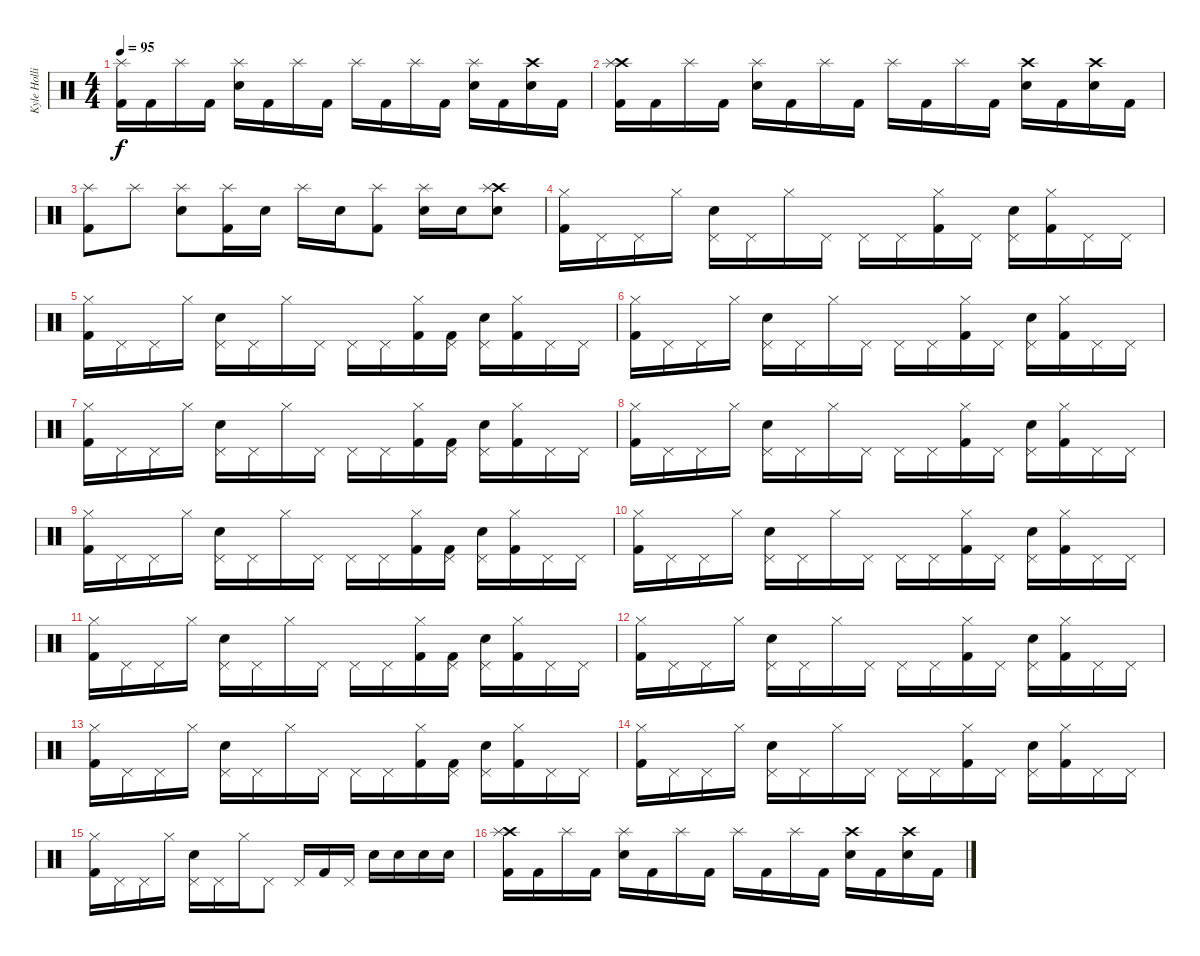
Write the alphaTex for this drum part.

\track ("Kyle Hollinger - Drums" "Kyle Holli") {instrument percussion}
\staff {score}
\articulation defaults
\ts (4 4)
\tempo 95
\clef neutral
\ks c
("Splash (hit)" "Kick (hit) 2").16{dy f} "Kick (hit) 2".16 "Splash (hit)".16 "Kick (hit) 2".16 ("Electric Snare (hit)" "Splash (hit)").16 "Kick (hit) 2".16 "Splash (hit)".16 "Kick (hit) 2".16 "Splash (hit)".16 "Kick (hit) 2".16 "Splash (hit)".16 "Kick (hit) 2".16 ("Electric Snare (hit)" "Splash (hit)").16 "Kick (hit) 2".16 ("Crash high (hit)" "Electric Snare (hit)").16 "Kick (hit) 2".16 |
("Crash high (hit)" "Splash (hit)" "Kick (hit) 2").16 "Kick (hit) 2".16 "Splash (hit)".16 "Kick (hit) 2".16 ("Electric Snare (hit)" "Splash (hit)").16 "Kick (hit) 2".16 "Splash (hit)".16 "Kick (hit) 2".16 "Splash (hit)".16 "Kick (hit) 2".16 "Splash (hit)".16 "Kick (hit) 2".16 ("Crash high (hit)" "Electric Snare (hit)").16 "Kick (hit) 2".16 ("Crash high (hit)" "Electric Snare (hit)").16 "Kick (hit) 2".16 |
("Splash (hit)" "Kick (hit) 2").8 "Splash (hit)".8 ("Electric Snare (hit)" "Splash (hit)").8 ("Splash (hit)" "Kick (hit) 2").16 "Electric Snare (hit)".16 "Splash (hit)".16 "Electric Snare (hit)".16 ("Splash (hit)" "Kick (hit) 2").8 ("Electric Snare (hit)" "Splash (hit)").16 "Electric Snare (hit)".16 ("Crash high (hit)" "Electric Snare (hit)" "Splash (hit)").8 |
("Hi-Hat (closed)" "Kick (hit) 2").16 "Pedal Hi-Hat (hit)".16{volume 5} "Pedal Hi-Hat (hit)".16 "Hi-Hat (closed)".16{volume 16} ("Pedal Hi-Hat (hit)" "Electric Snare (hit)").16 "Pedal Hi-Hat (hit)".16{volume 5} "Hi-Hat (closed)".16{volume 16} "Pedal Hi-Hat (hit)".16{volume 5} "Pedal Hi-Hat (hit)".16 "Pedal Hi-Hat (hit)".16{volume 5} ("Hi-Hat (closed)" "Kick (hit) 2").16{volume 16} "Pedal Hi-Hat (hit)".16{volume 5} ("Pedal Hi-Hat (hit)" "Electric Snare (hit)").16{volume 16} ("Hi-Hat (closed)" "Kick (hit) 2").16 "Pedal Hi-Hat (hit)".16{volume 5} "Pedal Hi-Hat (hit)".16 |
("Hi-Hat (closed)" "Kick (hit) 2").16{volume 16} "Pedal Hi-Hat (hit)".16{volume 5} "Pedal Hi-Hat (hit)".16 "Hi-Hat (closed)".16{volume 16} ("Pedal Hi-Hat (hit)" "Electric Snare (hit)").16 "Pedal Hi-Hat (hit)".16{volume 5} "Hi-Hat (closed)".16{volume 16} "Pedal Hi-Hat (hit)".16{volume 5} "Pedal Hi-Hat (hit)".16 "Pedal Hi-Hat (hit)".16{volume 5} ("Hi-Hat (closed)" "Kick (hit) 2").16{volume 16} ("Pedal Hi-Hat (hit)" "Kick (hit) 2").16{volume 16} ("Pedal Hi-Hat (hit)" "Electric Snare (hit)").16{volume 16} ("Hi-Hat (closed)" "Kick (hit) 2").16 "Pedal Hi-Hat (hit)".16{volume 5} "Pedal Hi-Hat (hit)".16 |
("Hi-Hat (closed)" "Kick (hit) 2").16{volume 16} "Pedal Hi-Hat (hit)".16{volume 5} "Pedal Hi-Hat (hit)".16 "Hi-Hat (closed)".16{volume 16} ("Pedal Hi-Hat (hit)" "Electric Snare (hit)").16 "Pedal Hi-Hat (hit)".16{volume 5} "Hi-Hat (closed)".16{volume 16} "Pedal Hi-Hat (hit)".16{volume 5} "Pedal Hi-Hat (hit)".16 "Pedal Hi-Hat (hit)".16{volume 5} ("Hi-Hat (closed)" "Kick (hit) 2").16{volume 16} "Pedal Hi-Hat (hit)".16{volume 5} ("Pedal Hi-Hat (hit)" "Electric Snare (hit)").16{volume 16} ("Hi-Hat (closed)" "Kick (hit) 2").16 "Pedal Hi-Hat (hit)".16{volume 5} "Pedal Hi-Hat (hit)".16 |
("Hi-Hat (closed)" "Kick (hit) 2").16{volume 16} "Pedal Hi-Hat (hit)".16{volume 5} "Pedal Hi-Hat (hit)".16 "Hi-Hat (closed)".16{volume 16} ("Pedal Hi-Hat (hit)" "Electric Snare (hit)").16 "Pedal Hi-Hat (hit)".16{volume 5} "Hi-Hat (closed)".16{volume 16} "Pedal Hi-Hat (hit)".16{volume 5} "Pedal Hi-Hat (hit)".16 "Pedal Hi-Hat (hit)".16{volume 5} ("Hi-Hat (closed)" "Kick (hit) 2").16{volume 16} ("Pedal Hi-Hat (hit)" "Kick (hit) 2").16{volume 16} ("Pedal Hi-Hat (hit)" "Electric Snare (hit)").16{volume 16} ("Hi-Hat (closed)" "Kick (hit) 2").16 "Pedal Hi-Hat (hit)".16{volume 5} "Pedal Hi-Hat (hit)".16 |
("Hi-Hat (closed)" "Kick (hit) 2").16{volume 16} "Pedal Hi-Hat (hit)".16{volume 5} "Pedal Hi-Hat (hit)".16 "Hi-Hat (closed)".16{volume 16} ("Pedal Hi-Hat (hit)" "Electric Snare (hit)").16 "Pedal Hi-Hat (hit)".16{volume 5} "Hi-Hat (closed)".16{volume 16} "Pedal Hi-Hat (hit)".16{volume 5} "Pedal Hi-Hat (hit)".16 "Pedal Hi-Hat (hit)".16{volume 5} ("Hi-Hat (closed)" "Kick (hit) 2").16{volume 16} "Pedal Hi-Hat (hit)".16{volume 5} ("Pedal Hi-Hat (hit)" "Electric Snare (hit)").16{volume 16} ("Hi-Hat (closed)" "Kick (hit) 2").16 "Pedal Hi-Hat (hit)".16{volume 5} "Pedal Hi-Hat (hit)".16 |
("Hi-Hat (closed)" "Kick (hit) 2").16{volume 16} "Pedal Hi-Hat (hit)".16{volume 5} "Pedal Hi-Hat (hit)".16 "Hi-Hat (closed)".16{volume 16} ("Pedal Hi-Hat (hit)" "Electric Snare (hit)").16 "Pedal Hi-Hat (hit)".16{volume 5} "Hi-Hat (closed)".16{volume 16} "Pedal Hi-Hat (hit)".16{volume 5} "Pedal Hi-Hat (hit)".16 "Pedal Hi-Hat (hit)".16{volume 5} ("Hi-Hat (closed)" "Kick (hit) 2").16{volume 16} ("Pedal Hi-Hat (hit)" "Kick (hit) 2").16{volume 16} ("Pedal Hi-Hat (hit)" "Electric Snare (hit)").16{volume 16} ("Hi-Hat (closed)" "Kick (hit) 2").16 "Pedal Hi-Hat (hit)".16{volume 5} "Pedal Hi-Hat (hit)".16 |
("Hi-Hat (closed)" "Kick (hit) 2").16{volume 16} "Pedal Hi-Hat (hit)".16{volume 5} "Pedal Hi-Hat (hit)".16 "Hi-Hat (closed)".16{volume 16} ("Pedal Hi-Hat (hit)" "Electric Snare (hit)").16 "Pedal Hi-Hat (hit)".16{volume 5} "Hi-Hat (closed)".16{volume 16} "Pedal Hi-Hat (hit)".16{volume 5} "Pedal Hi-Hat (hit)".16 "Pedal Hi-Hat (hit)".16{volume 5} ("Hi-Hat (closed)" "Kick (hit) 2").16{volume 16} "Pedal Hi-Hat (hit)".16{volume 5} ("Pedal Hi-Hat (hit)" "Electric Snare (hit)").16{volume 16} ("Hi-Hat (closed)" "Kick (hit) 2").16 "Pedal Hi-Hat (hit)".16{volume 5} "Pedal Hi-Hat (hit)".16 |
("Hi-Hat (closed)" "Kick (hit) 2").16{volume 16} "Pedal Hi-Hat (hit)".16{volume 5} "Pedal Hi-Hat (hit)".16 "Hi-Hat (closed)".16{volume 16} ("Pedal Hi-Hat (hit)" "Electric Snare (hit)").16 "Pedal Hi-Hat (hit)".16{volume 5} "Hi-Hat (closed)".16{volume 16} "Pedal Hi-Hat (hit)".16{volume 5} "Pedal Hi-Hat (hit)".16 "Pedal Hi-Hat (hit)".16{volume 5} ("Hi-Hat (closed)" "Kick (hit) 2").16{volume 16} ("Pedal Hi-Hat (hit)" "Kick (hit) 2").16{volume 16} ("Pedal Hi-Hat (hit)" "Electric Snare (hit)").16{volume 16} ("Hi-Hat (closed)" "Kick (hit) 2").16 "Pedal Hi-Hat (hit)".16{volume 5} "Pedal Hi-Hat (hit)".16 |
("Hi-Hat (closed)" "Kick (hit) 2").16{volume 16} "Pedal Hi-Hat (hit)".16{volume 5} "Pedal Hi-Hat (hit)".16 "Hi-Hat (closed)".16{volume 16} ("Pedal Hi-Hat (hit)" "Electric Snare (hit)").16 "Pedal Hi-Hat (hit)".16{volume 5} "Hi-Hat (closed)".16{volume 16} "Pedal Hi-Hat (hit)".16{volume 5} "Pedal Hi-Hat (hit)".16 "Pedal Hi-Hat (hit)".16{volume 5} ("Hi-Hat (closed)" "Kick (hit) 2").16{volume 16} "Pedal Hi-Hat (hit)".16{volume 5} ("Pedal Hi-Hat (hit)" "Electric Snare (hit)").16{volume 16} ("Hi-Hat (closed)" "Kick (hit) 2").16 "Pedal Hi-Hat (hit)".16{volume 5} "Pedal Hi-Hat (hit)".16 |
("Hi-Hat (closed)" "Kick (hit) 2").16{volume 16} "Pedal Hi-Hat (hit)".16{volume 5} "Pedal Hi-Hat (hit)".16 "Hi-Hat (closed)".16{volume 16} ("Pedal Hi-Hat (hit)" "Electric Snare (hit)").16 "Pedal Hi-Hat (hit)".16{volume 5} "Hi-Hat (closed)".16{volume 16} "Pedal Hi-Hat (hit)".16{volume 5} "Pedal Hi-Hat (hit)".16 "Pedal Hi-Hat (hit)".16{volume 5} ("Hi-Hat (closed)" "Kick (hit) 2").16{volume 16} ("Pedal Hi-Hat (hit)" "Kick (hit) 2").16{volume 16} ("Pedal Hi-Hat (hit)" "Electric Snare (hit)").16{volume 16} ("Hi-Hat (closed)" "Kick (hit) 2").16 "Pedal Hi-Hat (hit)".16{volume 5} "Pedal Hi-Hat (hit)".16 |
("Hi-Hat (closed)" "Kick (hit) 2").16{volume 16} "Pedal Hi-Hat (hit)".16{volume 5} "Pedal Hi-Hat (hit)".16 "Hi-Hat (closed)".16{volume 16} ("Pedal Hi-Hat (hit)" "Electric Snare (hit)").16 "Pedal Hi-Hat (hit)".16{volume 5} "Hi-Hat (closed)".16{volume 16} "Pedal Hi-Hat (hit)".16{volume 5} "Pedal Hi-Hat (hit)".16 "Pedal Hi-Hat (hit)".16{volume 5} ("Hi-Hat (closed)" "Kick (hit) 2").16{volume 16} "Pedal Hi-Hat (hit)".16{volume 5} ("Pedal Hi-Hat (hit)" "Electric Snare (hit)").16{volume 16} ("Hi-Hat (closed)" "Kick (hit) 2").16 "Pedal Hi-Hat (hit)".16{volume 5} "Pedal Hi-Hat (hit)".16 |
("Hi-Hat (closed)" "Kick (hit) 2").16{volume 16} "Pedal Hi-Hat (hit)".16{volume 5} "Pedal Hi-Hat (hit)".16 "Hi-Hat (closed)".16{volume 16} ("Pedal Hi-Hat (hit)" "Electric Snare (hit)").16 "Pedal Hi-Hat (hit)".16{volume 5} "Hi-Hat (closed)".16{volume 16} "Pedal Hi-Hat (hit)".8{volume 5} "Pedal Hi-Hat (hit)".16 "Kick (hit) 2".16{volume 16} "Pedal Hi-Hat (hit)".16{volume 16} "Electric Snare (hit)".16{volume 16} "Electric Snare (hit)".16 "Electric Snare (hit)".16 "Electric Snare (hit)".16 |
("Crash high (hit)" "Splash (hit)" "Kick (hit) 2").16 "Kick (hit) 2".16 "Splash (hit)".16 "Kick (hit) 2".16 ("Electric Snare (hit)" "Splash (hit)").16 "Kick (hit) 2".16 "Splash (hit)".16 "Kick (hit) 2".16 "Splash (hit)".16 "Kick (hit) 2".16 "Splash (hit)".16 "Kick (hit) 2".16 ("Crash high (hit)" "Electric Snare (hit)").16 "Kick (hit) 2".16 ("Crash high (hit)" "Electric Snare (hit)").16 "Kick (hit) 2".16
